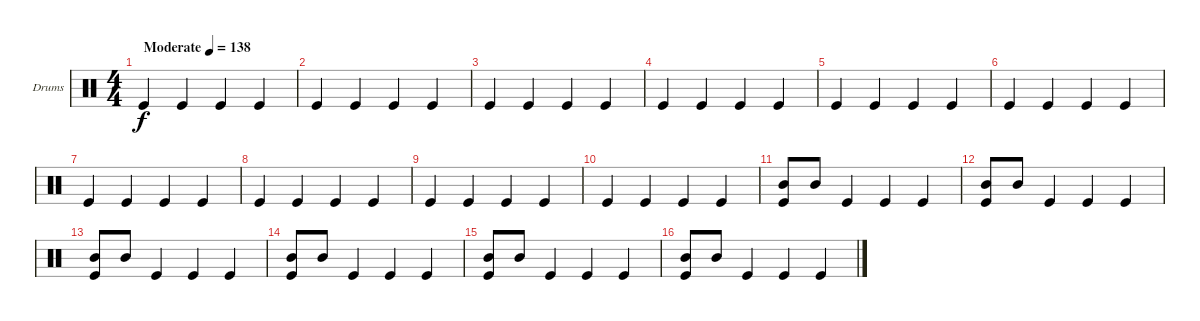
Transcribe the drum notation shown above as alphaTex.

\bracketExtendMode groupsimilarinstruments
\firstSystemTrackNameOrientation horizontal
\otherSystemsTrackNameOrientation horizontal
\track ("Drumkit" "Drums") {instrument percussion}
\staff {score}
\articulation defaults
\ts (4 4)
\beaming (8 2 2 2 2)
\tempo (138 "Moderate")
\clef neutral
\ks c "Kick (hit)".4{dy f} "Kick (hit)".4 "Kick (hit)".4 "Kick (hit)".4
|
"Kick (hit)".4 "Kick (hit)".4 "Kick (hit)".4 "Kick (hit)".4 |
"Kick (hit)".4 "Kick (hit)".4 "Kick (hit)".4 "Kick (hit)".4 |
"Kick (hit)".4 "Kick (hit)".4 "Kick (hit)".4 "Kick (hit)".4 |
"Kick (hit)".4 "Kick (hit)".4 "Kick (hit)".4 "Kick (hit)".4 |
"Kick (hit)".4 "Kick (hit)".4 "Kick (hit)".4 "Kick (hit)".4 |
"Kick (hit)".4 "Kick (hit)".4 "Kick (hit)".4 "Kick (hit)".4 |
"Kick (hit)".4 "Kick (hit)".4 "Kick (hit)".4 "Kick (hit)".4 |
"Kick (hit)".4 "Kick (hit)".4 "Kick (hit)".4 "Kick (hit)".4 |
"Kick (hit)".4 "Kick (hit)".4 "Kick (hit)".4 "Kick (hit)".4 |
("Mid Tom (hit)" "Kick (hit)").8 "Mid Tom (hit)".8 "Kick (hit)".4 "Kick (hit)".4 "Kick (hit)".4 |
("Mid Tom (hit)" "Kick (hit)").8 "Mid Tom (hit)".8 "Kick (hit)".4 "Kick (hit)".4 "Kick (hit)".4 |
("Mid Tom (hit)" "Kick (hit)").8 "Mid Tom (hit)".8 "Kick (hit)".4 "Kick (hit)".4 "Kick (hit)".4 |
("Mid Tom (hit)" "Kick (hit)").8 "Mid Tom (hit)".8 "Kick (hit)".4 "Kick (hit)".4 "Kick (hit)".4 |
("Mid Tom (hit)" "Kick (hit)").8 "Mid Tom (hit)".8 "Kick (hit)".4 "Kick (hit)".4 "Kick (hit)".4 |
("Mid Tom (hit)" "Kick (hit)").8 "Mid Tom (hit)".8 "Kick (hit)".4 "Kick (hit)".4 "Kick (hit)".4
